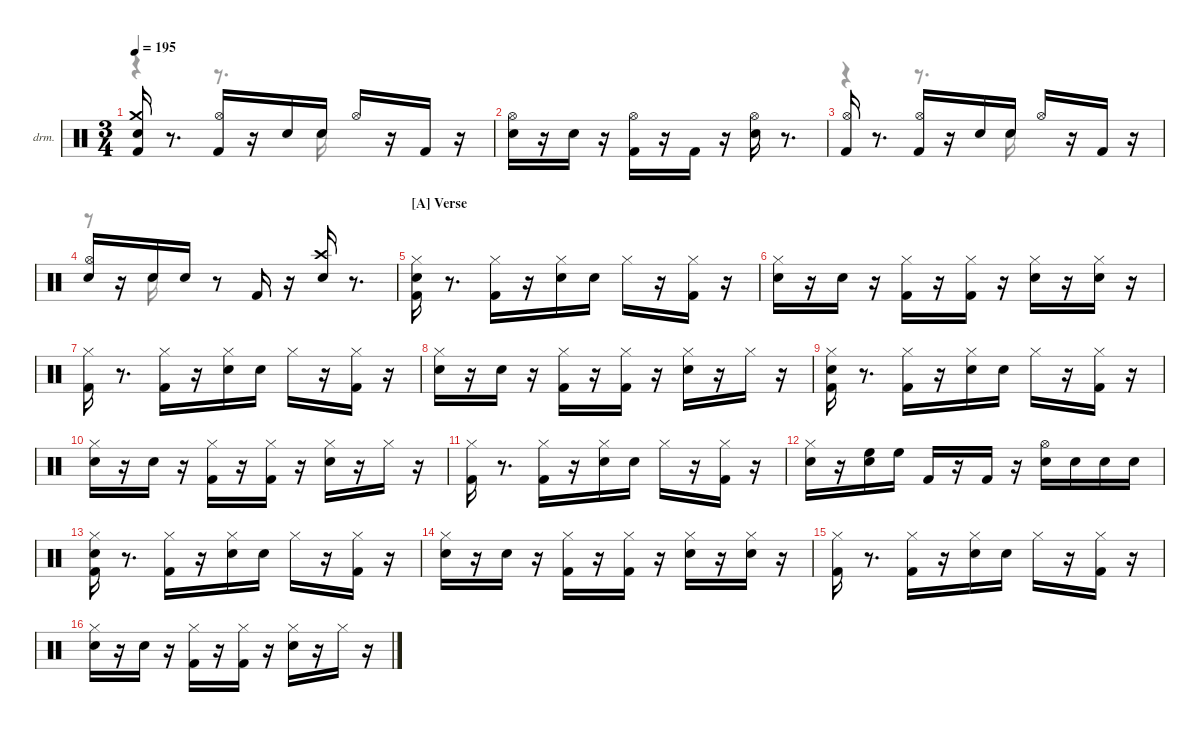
\hideDynamics
\bracketExtendMode nobrackets
\firstSystemTrackNameOrientation horizontal
\track ("Drums" "drm.") {instrument percussion}
\staff {score}
\articulation defaults
\voice
\ts (3 4)
\tempo 195
\clef neutral
\ks aminor
("Kick (hit) 2" "Snare (hit) 2" "Crash medium (hit)").16{dy ff} r.8{d} ("Kick (hit) 2" "Hi-Hat (open)"{acc #}).16{dy mf} r.16 "Snare (hit) 2".16{dy f} "Snare (hit) 2".16{dy ppp} "Hi-Hat (open)"{acc #}.16{dy mf} r.16 "Kick (hit) 2".16{dy f} r.16 |
("Snare (hit) 2" "Hi-Hat (open)"{acc #}).16{dy ff} r.16 "Snare (hit) 2".16{dy ppp} r.16 ("Kick (hit) 2" "Hi-Hat (open)"{acc #}).16 r.16 "Kick (hit) 2".16{dy ff} r.16 ("Snare (hit) 2" "Hi-Hat (open)"{acc #}).16{dy f} r.8{d} |
("Kick (hit) 2" "Hi-Hat (open)"{acc #}).16{dy ff} r.8{d} ("Kick (hit) 2" "Hi-Hat (open)"{acc #}).16{dy mf} r.16 "Snare (hit) 2".16{dy f} "Snare (hit) 2".16{dy ppp} "Hi-Hat (open)"{acc #}.16{dy ff} r.16 "Kick (hit) 2".16{dy f} r.16 |
("Snare (hit) 2" "Hi-Hat (open)"{acc #}).16{dy ff} r.16 "Snare (hit) 2".16{dy f} "Snare (hit) 2".16{dy mp} r.8 "Kick (hit) 2".16{dy ff} r.16 ("Snare (hit) 2" "Crash high (hit)"{acc #}).16{dy fff} r.8{d} |
\section ("A" "Verse")
("Snare (hit) 2" "Hi-Hat (closed)"{acc #} "Kick (hit) 2").16 r.8{d} ("Kick (hit) 2" "Hi-Hat (closed)"{acc #}).16{dy mp} r.16 ("Snare (hit) 2" "Hi-Hat (closed)"{acc #}).16{dy f} "Snare (hit) 2".16{dy pp} "Hi-Hat (closed)"{acc #}.16{dy ppp} r.16 ("Kick (hit) 2" "Hi-Hat (closed)"{acc #}).16 r.16 |
("Snare (hit) 2" "Hi-Hat (closed)"{acc #}).16{dy ff} r.16 "Snare (hit) 2".16{dy ppp} r.16 ("Kick (hit) 2" "Hi-Hat (closed)"{acc #}).16 r.16 ("Kick (hit) 2" "Hi-Hat (closed)"{acc #}).16{dy ff} r.16 ("Snare (hit) 2" "Hi-Hat (closed)"{acc #}).16{dy f} r.16 ("Snare (hit) 2" "Hi-Hat (closed)"{acc #}).16{dy ppp} r.16 |
("Kick (hit) 2" "Hi-Hat (closed)"{acc #}).16{dy ff} r.8{d} ("Kick (hit) 2" "Hi-Hat (closed)"{acc #}).16{dy mf} r.16 ("Snare (hit) 2" "Hi-Hat (closed)"{acc #}).16{dy f} "Snare (hit) 2".16{dy ppp} "Hi-Hat (closed)"{acc #}.16 r.16 ("Kick (hit) 2" "Hi-Hat (closed)"{acc #}).16{dy f} r.16 |
("Snare (hit) 2" "Hi-Hat (closed)"{acc #}).16{dy ff} r.16 "Snare (hit) 2".16{dy ppp} r.16 ("Kick (hit) 2" "Hi-Hat (closed)"{acc #}).16 r.16 ("Kick (hit) 2" "Hi-Hat (closed)"{acc #}).16 r.16 ("Snare (hit) 2" "Hi-Hat (closed)"{acc #}).16{dy f} r.16 "Hi-Hat (closed)"{acc #}.16{dy ppp} r.16 |
("Kick (hit) 2" "Snare (hit) 2" "Hi-Hat (closed)"{acc #}).16{dy fff} r.8{d} ("Kick (hit) 2" "Hi-Hat (closed)"{acc #}).16{dy mp} r.16 ("Snare (hit) 2" "Hi-Hat (closed)"{acc #}).16{dy f} "Snare (hit) 2".16{dy pp} "Hi-Hat (closed)"{acc #}.16{dy ppp} r.16 ("Kick (hit) 2" "Hi-Hat (closed)"{acc #}).16{dy f} r.16 |
("Snare (hit) 2" "Hi-Hat (closed)"{acc #}).16{dy ff} r.16 "Snare (hit) 2".16{dy ppp} r.16 ("Kick (hit) 2" "Hi-Hat (closed)"{acc #}).16{dy p} r.16 ("Kick (hit) 2" "Hi-Hat (closed)"{acc #}).16{dy ff} r.16 ("Snare (hit) 2" "Hi-Hat (closed)"{acc #}).16{dy fff} r.16 "Hi-Hat (closed)"{acc #}.16{dy ppp} r.16 |
("Kick (hit) 2" "Hi-Hat (closed)"{acc #}).16{dy fff} r.8{d} ("Kick (hit) 2" "Hi-Hat (closed)"{acc #}).16{dy mp} r.16 ("Snare (hit) 2" "Hi-Hat (closed)"{acc #}).16{dy f} "Snare (hit) 2".16{dy pp} "Hi-Hat (closed)"{acc #}.16{dy ppp} r.16 ("Kick (hit) 2" "Hi-Hat (closed)"{acc #}).16{dy f} r.16 |
("Snare (hit) 2" "Hi-Hat (closed)"{acc #}).16{dy ff} r.16 ("Snare (hit) 2" "High Floor Tom (hit)").16{dy f} "High Floor Tom (hit)".16{dy mf} "Kick (hit) 2".16 r.16 "Kick (hit) 2".16{dy ff} r.16 ("Snare (hit) 2" "Hi-Hat (open)"{acc #}).16 "Snare (hit) 2".16{dy pp} "Snare (hit) 2".16{dy ppp} "Snare (hit) 2".16 |
("Kick (hit) 2" "Snare (hit) 2" "Hi-Hat (closed)"{acc #}).16{dy ff} r.8{d} ("Kick (hit) 2" "Hi-Hat (closed)"{acc #}).16{dy mf} r.16 ("Snare (hit) 2" "Hi-Hat (closed)"{acc #}).16{dy f} "Snare (hit) 2".16{dy pp} "Hi-Hat (closed)"{acc #}.16{dy ppp} r.16 ("Kick (hit) 2" "Hi-Hat (closed)"{acc #}).16 r.16 |
("Snare (hit) 2" "Hi-Hat (closed)"{acc #}).16{dy ff} r.16 "Snare (hit) 2".16{dy ppp} r.16 ("Kick (hit) 2" "Hi-Hat (closed)"{acc #}).16{dy p} r.16 ("Kick (hit) 2" "Hi-Hat (closed)"{acc #}).16{dy ff} r.16 ("Snare (hit) 2" "Hi-Hat (closed)"{acc #}).16{dy f} r.16 ("Snare (hit) 2" "Hi-Hat (closed)"{acc #}).16{dy pp} r.16 |
("Kick (hit) 2" "Hi-Hat (closed)"{acc #}).16{dy ff} r.8{d} ("Kick (hit) 2" "Hi-Hat (closed)"{acc #}).16{dy mp} r.16 ("Snare (hit) 2" "Hi-Hat (closed)"{acc #}).16{dy f} "Snare (hit) 2".16{dy pp} "Hi-Hat (closed)"{acc #}.16{dy ppp} r.16 ("Kick (hit) 2" "Hi-Hat (closed)"{acc #}).16{dy f} r.16 |
("Snare (hit) 2" "Hi-Hat (closed)"{acc #}).16{dy ff} r.16 "Snare (hit) 2".16{dy ppp} r.16 ("Kick (hit) 2" "Hi-Hat (closed)"{acc #}).16 r.16 ("Kick (hit) 2" "Hi-Hat (closed)"{acc #}).16{dy ff} r.16 ("Snare (hit) 2" "Hi-Hat (closed)"{acc #}).16 r.16 "Hi-Hat (closed)"{acc #}.16{dy ppp} r.16
\voice
\clef neutral
\ottava regular
\simile none
\ks aminor
r.4{dy pp} r.8{d} "Snare (hit) 2".16 |
|
r.4 r.8{d} "Snare (hit) 2".16 |
r.8 "Snare (hit) 2".16{dy ppp} |
|
|
|
|
|
|
|
|
|
|
|
